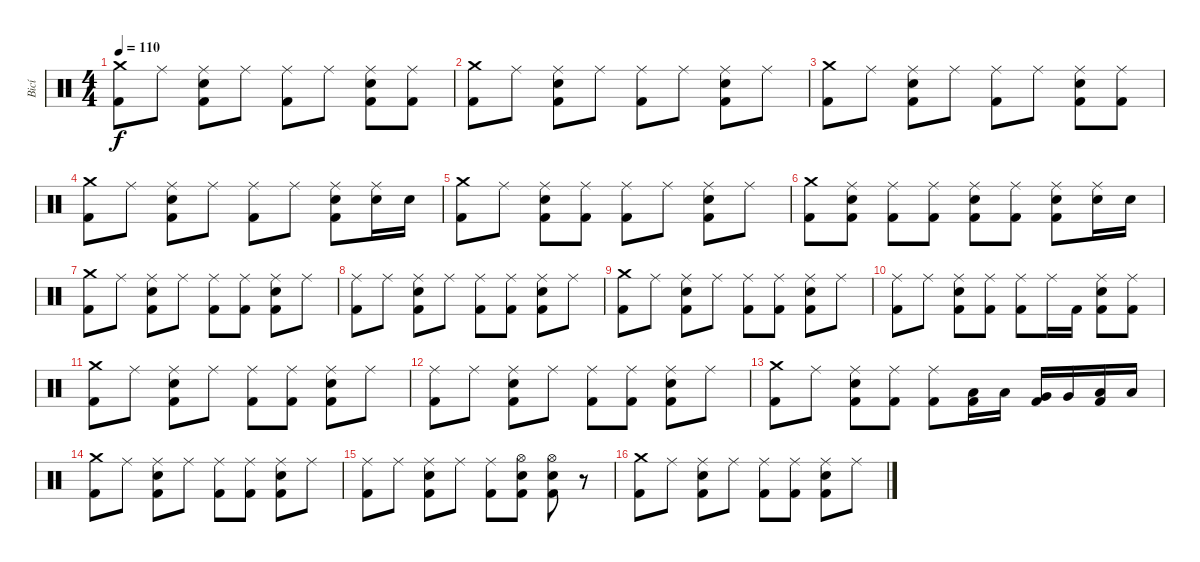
\track ("Bicí" "Bicí") {instrument percussion}
\staff {score}
\articulation defaults
\ts (4 4)
\tempo 110
\clef neutral
\ks c
("Crash medium (hit)" "Kick (hit) 2").8{dy f} "Ride (middle)".8 ("Ride (middle)" "Electric Snare (hit)" "Kick (hit) 2").8 "Ride (middle)".8 ("Ride (middle)" "Kick (hit) 2").8 "Ride (middle)".8 ("Ride (middle)" "Electric Snare (hit)" "Kick (hit) 2").8 ("Ride (middle)" "Kick (hit) 2").8 |
("Crash medium (hit)" "Kick (hit) 2").8 "Ride (middle)".8 ("Ride (middle)" "Electric Snare (hit)" "Kick (hit) 2").8 "Ride (middle)".8 ("Ride (middle)" "Kick (hit) 2").8 "Ride (middle)".8 ("Ride (middle)" "Electric Snare (hit)" "Kick (hit) 2").8 "Ride (middle)".8 |
("Crash medium (hit)" "Kick (hit) 2").8 "Ride (middle)".8 ("Ride (middle)" "Electric Snare (hit)" "Kick (hit) 2").8 "Ride (middle)".8 ("Ride (middle)" "Kick (hit) 2").8 "Ride (middle)".8 ("Ride (middle)" "Electric Snare (hit)" "Kick (hit) 2").8 ("Ride (middle)" "Kick (hit) 2").8 |
("Crash medium (hit)" "Kick (hit) 2").8 "Ride (middle)".8 ("Ride (middle)" "Electric Snare (hit)" "Kick (hit) 2").8 "Ride (middle)".8 ("Ride (middle)" "Kick (hit) 2").8 "Ride (middle)".8 ("Ride (middle)" "Electric Snare (hit)" "Kick (hit) 2").8 ("Ride (middle)" "Electric Snare (hit)").16 "Electric Snare (hit)".16 |
("Crash medium (hit)" "Kick (hit) 2").8 "Ride (middle)".8 ("Ride (middle)" "Electric Snare (hit)" "Kick (hit) 2").8 ("Ride (middle)" "Kick (hit) 2").8 ("Ride (middle)" "Kick (hit) 2").8 "Ride (middle)".8 ("Ride (middle)" "Electric Snare (hit)" "Kick (hit) 2").8 "Ride (middle)".8 |
("Crash medium (hit)" "Kick (hit) 2").8 ("Ride (middle)" "Electric Snare (hit)" "Kick (hit) 2").8 ("Ride (middle)" "Kick (hit) 2").8 ("Ride (middle)" "Kick (hit) 2").8 ("Ride (middle)" "Electric Snare (hit)" "Kick (hit) 2").8 ("Ride (middle)" "Kick (hit) 2").8 ("Ride (middle)" "Electric Snare (hit)" "Kick (hit) 2").8 ("Ride (middle)" "Electric Snare (hit)").16 "Electric Snare (hit)".16 |
("Crash medium (hit)" "Kick (hit) 2").8 "Ride (middle)".8 ("Ride (middle)" "Electric Snare (hit)" "Kick (hit) 2").8 "Ride (middle)".8 ("Ride (middle)" "Kick (hit) 2").8 ("Ride (middle)" "Kick (hit) 2").8 ("Ride (middle)" "Electric Snare (hit)" "Kick (hit) 2").8 "Ride (middle)".8 |
("Ride (middle)" "Kick (hit) 2").8 "Ride (middle)".8 ("Ride (middle)" "Electric Snare (hit)" "Kick (hit) 2").8 "Ride (middle)".8 ("Ride (middle)" "Kick (hit) 2").8 ("Ride (middle)" "Kick (hit) 2").8 ("Ride (middle)" "Electric Snare (hit)" "Kick (hit) 2").8 "Ride (middle)".8 |
("Crash medium (hit)" "Kick (hit) 2").8 "Ride (middle)".8 ("Ride (middle)" "Electric Snare (hit)" "Kick (hit) 2").8 "Ride (middle)".8 ("Ride (middle)" "Kick (hit) 2").8 ("Ride (middle)" "Kick (hit) 2").8 ("Ride (middle)" "Electric Snare (hit)" "Kick (hit) 2").8 "Ride (middle)".8 |
("Ride (middle)" "Kick (hit) 2").8 "Ride (middle)".8 ("Ride (middle)" "Electric Snare (hit)" "Kick (hit) 2").8 ("Ride (middle)" "Kick (hit) 2").8 ("Ride (middle)" "Kick (hit) 2").8 "Ride (middle)".16 "Kick (hit) 2".16 ("Ride (middle)" "Electric Snare (hit)" "Kick (hit) 2").8 ("Ride (middle)" "Kick (hit) 2").8 |
("Crash medium (hit)" "Kick (hit) 2").8 "Ride (middle)".8 ("Ride (middle)" "Electric Snare (hit)" "Kick (hit) 2").8 "Ride (middle)".8 ("Ride (middle)" "Kick (hit) 2").8 ("Ride (middle)" "Kick (hit) 2").8 ("Ride (middle)" "Electric Snare (hit)" "Kick (hit) 2").8 "Ride (middle)".8 |
("Ride (middle)" "Kick (hit) 2").8 "Ride (middle)".8 ("Ride (middle)" "Electric Snare (hit)" "Kick (hit) 2").8 "Ride (middle)".8 ("Ride (middle)" "Kick (hit) 2").8 ("Ride (middle)" "Kick (hit) 2").8 ("Ride (middle)" "Electric Snare (hit)" "Kick (hit) 2").8 "Ride (middle)".8 |
("Crash medium (hit)" "Kick (hit) 2").8 "Ride (middle)".8 ("Ride (middle)" "Electric Snare (hit)" "Kick (hit) 2").8 ("Ride (middle)" "Kick (hit) 2").8 ("Ride (middle)" "Kick (hit) 2").8 ("Low Tom (hit)" "Kick (hit) 2").16 "Low Tom (hit)".16 ("Very Low Tom (hit)" "Kick (hit) 2").16 "Very Low Tom (hit)".16 ("Low Floor Tom (hit)" "Kick (hit) 2").16 "Low Floor Tom (hit)".16 |
("Crash medium (hit)" "Kick (hit) 2").8 "Ride (middle)".8 ("Ride (middle)" "Electric Snare (hit)" "Kick (hit) 2").8 "Ride (middle)".8 ("Ride (middle)" "Kick (hit) 2").8 ("Ride (middle)" "Kick (hit) 2").8 ("Ride (middle)" "Electric Snare (hit)" "Kick (hit) 2").8 "Ride (middle)".8 |
("Ride (middle)" "Kick (hit) 2").8 "Ride (middle)".8 ("Ride (middle)" "Electric Snare (hit)" "Kick (hit) 2").8 "Ride (middle)".8 ("Ride (middle)" "Kick (hit) 2").8 ("Hi-Hat (open)" "Electric Snare (hit)" "Kick (hit) 2").8 ("Hi-Hat (open)" "Electric Snare (hit)" "Kick (hit) 2").8 r.8 |
("Crash medium (hit)" "Kick (hit) 2").8 "Ride (middle)".8 ("Ride (middle)" "Electric Snare (hit)" "Kick (hit) 2").8 "Ride (middle)".8 ("Ride (middle)" "Kick (hit) 2").8 ("Ride (middle)" "Kick (hit) 2").8 ("Ride (middle)" "Electric Snare (hit)" "Kick (hit) 2").8 "Ride (middle)".8
